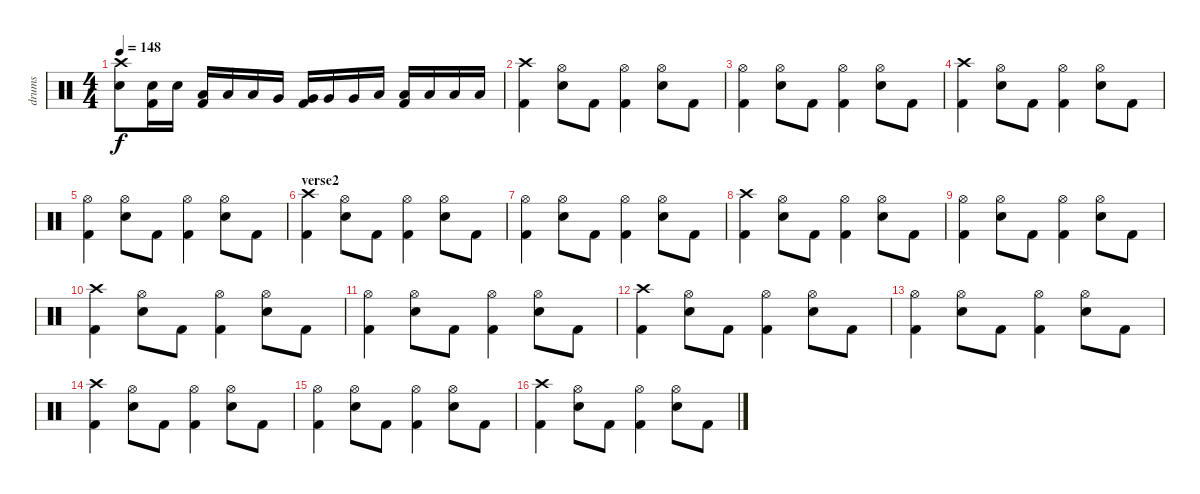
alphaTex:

\track ("drums" "drums") {instrument percussion}
\staff {score}
\articulation defaults
\ts (4 4)
\tempo 148
\clef neutral
\ks c
("Crash high (hit)" "Electric Snare (hit)").8{dy f} ("Electric Snare (hit)" "Kick (hit) 2").16 "Electric Snare (hit)".16 ("Low Tom (hit)" "Kick (hit) 2").16 "Low Tom (hit)".16 "Low Tom (hit)".16 "Very Low Tom (hit)".16 ("Very Low Tom (hit)" "Kick (hit) 2").16 "Very Low Tom (hit)".16 "Very Low Tom (hit)".16 "Low Floor Tom (hit)".16 ("Low Floor Tom (hit)" "Kick (hit) 2").16 "Low Floor Tom (hit)".16 "Low Floor Tom (hit)".16 "Low Floor Tom (hit)".16 |
("Crash high (hit)" "Kick (hit) 2").4 ("Hi-Hat (open)" "Electric Snare (hit)").8 "Kick (hit) 2".8 ("Hi-Hat (open)" "Kick (hit) 2").4 ("Hi-Hat (open)" "Electric Snare (hit)").8 "Kick (hit) 2".8 |
("Hi-Hat (open)" "Kick (hit) 2").4 ("Hi-Hat (open)" "Electric Snare (hit)").8 "Kick (hit) 2".8 ("Hi-Hat (open)" "Kick (hit) 2").4 ("Hi-Hat (open)" "Electric Snare (hit)").8 "Kick (hit) 2".8 |
("Crash high (hit)" "Kick (hit) 2").4 ("Hi-Hat (open)" "Electric Snare (hit)").8 "Kick (hit) 2".8 ("Hi-Hat (open)" "Kick (hit) 2").4 ("Hi-Hat (open)" "Electric Snare (hit)").8 "Kick (hit) 2".8 |
("Hi-Hat (open)" "Kick (hit) 2").4 ("Hi-Hat (open)" "Electric Snare (hit)").8 "Kick (hit) 2".8 ("Hi-Hat (open)" "Kick (hit) 2").4 ("Hi-Hat (open)" "Electric Snare (hit)").8 "Kick (hit) 2".8 |
\section ("" "verse2")
("Crash high (hit)" "Kick (hit) 2").4 ("Hi-Hat (open)" "Electric Snare (hit)").8 "Kick (hit) 2".8 ("Hi-Hat (open)" "Kick (hit) 2").4 ("Hi-Hat (open)" "Electric Snare (hit)").8 "Kick (hit) 2".8 |
("Hi-Hat (open)" "Kick (hit) 2").4 ("Hi-Hat (open)" "Electric Snare (hit)").8 "Kick (hit) 2".8 ("Hi-Hat (open)" "Kick (hit) 2").4 ("Hi-Hat (open)" "Electric Snare (hit)").8 "Kick (hit) 2".8 |
("Crash high (hit)" "Kick (hit) 2").4 ("Hi-Hat (open)" "Electric Snare (hit)").8 "Kick (hit) 2".8 ("Hi-Hat (open)" "Kick (hit) 2").4 ("Hi-Hat (open)" "Electric Snare (hit)").8 "Kick (hit) 2".8 |
("Hi-Hat (open)" "Kick (hit) 2").4 ("Hi-Hat (open)" "Electric Snare (hit)").8 "Kick (hit) 2".8 ("Hi-Hat (open)" "Kick (hit) 2").4 ("Hi-Hat (open)" "Electric Snare (hit)").8 "Kick (hit) 2".8 |
("Crash high (hit)" "Kick (hit) 2").4 ("Hi-Hat (open)" "Electric Snare (hit)").8 "Kick (hit) 2".8 ("Hi-Hat (open)" "Kick (hit) 2").4 ("Hi-Hat (open)" "Electric Snare (hit)").8 "Kick (hit) 2".8 |
("Hi-Hat (open)" "Kick (hit) 2").4 ("Hi-Hat (open)" "Electric Snare (hit)").8 "Kick (hit) 2".8 ("Hi-Hat (open)" "Kick (hit) 2").4 ("Hi-Hat (open)" "Electric Snare (hit)").8 "Kick (hit) 2".8 |
("Crash high (hit)" "Kick (hit) 2").4 ("Hi-Hat (open)" "Electric Snare (hit)").8 "Kick (hit) 2".8 ("Hi-Hat (open)" "Kick (hit) 2").4 ("Hi-Hat (open)" "Electric Snare (hit)").8 "Kick (hit) 2".8 |
("Hi-Hat (open)" "Kick (hit) 2").4 ("Hi-Hat (open)" "Electric Snare (hit)").8 "Kick (hit) 2".8 ("Hi-Hat (open)" "Kick (hit) 2").4 ("Hi-Hat (open)" "Electric Snare (hit)").8 "Kick (hit) 2".8 |
("Crash high (hit)" "Kick (hit) 2").4 ("Hi-Hat (open)" "Electric Snare (hit)").8 "Kick (hit) 2".8 ("Hi-Hat (open)" "Kick (hit) 2").4 ("Hi-Hat (open)" "Electric Snare (hit)").8 "Kick (hit) 2".8 |
("Hi-Hat (open)" "Kick (hit) 2").4 ("Hi-Hat (open)" "Electric Snare (hit)").8 "Kick (hit) 2".8 ("Hi-Hat (open)" "Kick (hit) 2").4 ("Hi-Hat (open)" "Electric Snare (hit)").8 "Kick (hit) 2".8 |
("Crash high (hit)" "Kick (hit) 2").4 ("Hi-Hat (open)" "Electric Snare (hit)").8 "Kick (hit) 2".8 ("Hi-Hat (open)" "Kick (hit) 2").4 ("Hi-Hat (open)" "Electric Snare (hit)").8 "Kick (hit) 2".8
